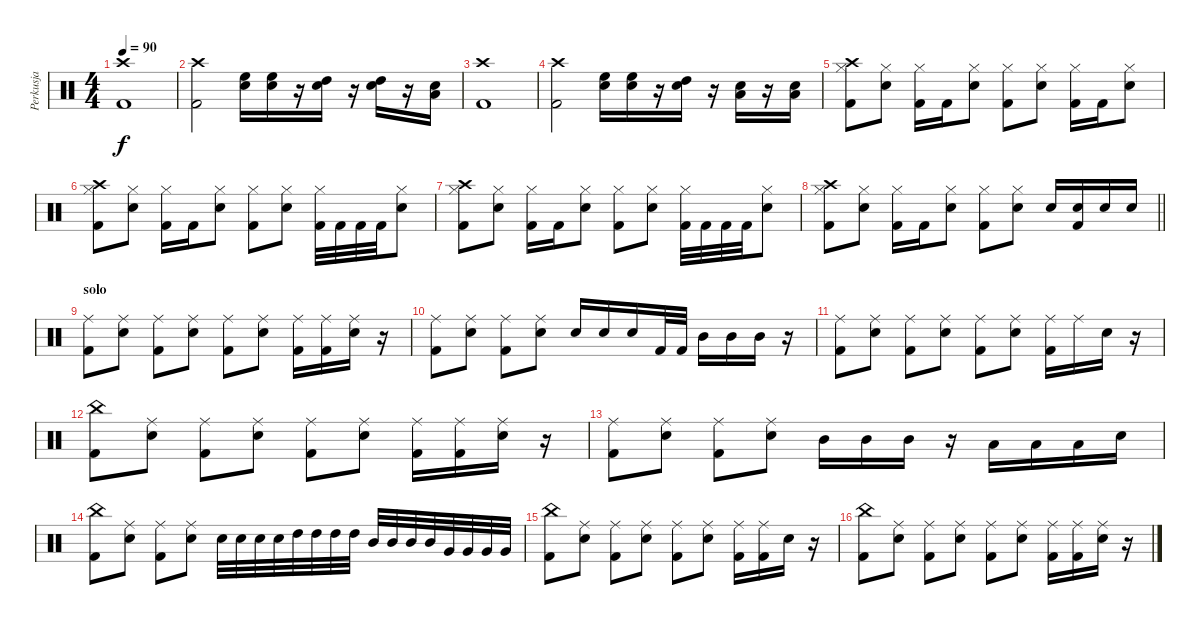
\track ("Perkusja" "Perkusja") {instrument percussion}
\staff {score}
\articulation defaults
\ts (4 4)
\tempo 90
\clef neutral
\ks c
("Kick (hit) 2" "Crash high (hit)").1{dy f} |
("Kick (hit) 2" "Crash high (hit)").2 ("Snare (hit) 2" "High Floor Tom (hit)").16 ("Snare (hit) 2" "High Floor Tom (hit)").16 r.16 ("Snare (hit) 2" "High Tom (hit)").16 r.16 ("Snare (hit) 2" "High Tom (hit)").16 r.16 ("Snare (hit) 2" "Low Floor Tom (hit)").16 |
("Kick (hit) 2" "Crash high (hit)").1 |
("Kick (hit) 2" "Crash high (hit)").2 ("Snare (hit) 2" "High Floor Tom (hit)").16 ("Snare (hit) 2" "High Floor Tom (hit)").16 r.16 ("Snare (hit) 2" "High Tom (hit)").16 r.16 ("Snare (hit) 2" "Low Floor Tom (hit)").16 r.16 ("Snare (hit) 2" "Low Floor Tom (hit)").16 |
("Kick (hit) 2" "Hi-Hat (closed)" "Crash high (hit)").8 ("Snare (hit) 2" "Hi-Hat (closed)").8 ("Kick (hit) 2" "Hi-Hat (closed)").16 "Kick (hit) 2".16 ("Snare (hit) 2" "Hi-Hat (closed)").8 ("Kick (hit) 2" "Hi-Hat (closed)").8 ("Snare (hit) 2" "Hi-Hat (closed)").8 ("Kick (hit) 2" "Hi-Hat (closed)").16 "Kick (hit) 2".16 ("Snare (hit) 2" "Hi-Hat (closed)").8 |
("Kick (hit) 2" "Hi-Hat (closed)" "Crash high (hit)").8 ("Snare (hit) 2" "Hi-Hat (closed)").8 ("Kick (hit) 2" "Hi-Hat (closed)").16 "Kick (hit) 2".16 ("Snare (hit) 2" "Hi-Hat (closed)").8 ("Kick (hit) 2" "Hi-Hat (closed)").8 ("Snare (hit) 2" "Hi-Hat (closed)").8 ("Kick (hit) 2" "Hi-Hat (closed)").32 "Kick (hit) 2".32 "Kick (hit) 2".32 "Kick (hit) 2".32 ("Snare (hit) 2" "Hi-Hat (closed)").8 |
("Kick (hit) 2" "Hi-Hat (closed)" "Crash high (hit)").8 ("Snare (hit) 2" "Hi-Hat (closed)").8 ("Kick (hit) 2" "Hi-Hat (closed)").16 "Kick (hit) 2".16 ("Snare (hit) 2" "Hi-Hat (closed)").8 ("Kick (hit) 2" "Hi-Hat (closed)").8 ("Snare (hit) 2" "Hi-Hat (closed)").8 ("Kick (hit) 2" "Hi-Hat (closed)").32 "Kick (hit) 2".32 "Kick (hit) 2".32 "Kick (hit) 2".32 ("Snare (hit) 2" "Hi-Hat (closed)").8 |
\barLineRight lightlight
("Kick (hit) 2" "Hi-Hat (closed)" "Crash high (hit)").8 ("Snare (hit) 2" "Hi-Hat (closed)").8 ("Kick (hit) 2" "Hi-Hat (closed)").16 "Kick (hit) 2".16 ("Snare (hit) 2" "Hi-Hat (closed)").8 ("Kick (hit) 2" "Hi-Hat (closed)").8 ("Snare (hit) 2" "Hi-Hat (closed)").8 "Snare (hit) 2".16 ("Snare (hit) 2" "Kick (hit) 2").16 "Snare (hit) 2".16 "Snare (hit) 2".16 |
\section ("" "solo")
("Ride (middle)" "Kick (hit) 2").8 ("Ride (middle)" "Snare (hit) 2").8 ("Ride (middle)" "Kick (hit) 2").8 ("Ride (middle)" "Snare (hit) 2").8 ("Ride (middle)" "Kick (hit) 2").8 ("Ride (middle)" "Snare (hit) 2").8 ("Ride (middle)" "Kick (hit) 2").16 ("Ride (middle)" "Kick (hit) 2").16 ("Ride (middle)" "Snare (hit) 2").16 r.16 |
("Ride (middle)" "Kick (hit) 2").8 ("Ride (middle)" "Snare (hit) 2").8 ("Ride (middle)" "Kick (hit) 2").8 ("Ride (middle)" "Snare (hit) 2").8 "Snare (hit) 2".16 "Snare (hit) 2".16 "Snare (hit) 2".16 "Kick (hit) 2".32 "Kick (hit) 2".32 "Mid Tom (hit)".16 "Mid Tom (hit)".16 "Mid Tom (hit)".16 r.16 |
("Ride (middle)" "Kick (hit) 2").8 ("Ride (middle)" "Snare (hit) 2").8 ("Ride (middle)" "Kick (hit) 2").8 ("Ride (middle)" "Snare (hit) 2").8 ("Ride (middle)" "Kick (hit) 2").8 ("Ride (middle)" "Snare (hit) 2").8 ("Ride (middle)" "Kick (hit) 2").16 "Ride (middle)".16 "Snare (hit) 2".16 r.16 |
("China (hit)" "Kick (hit) 2").8 ("Ride (middle)" "Snare (hit) 2").8 ("Ride (middle)" "Kick (hit) 2").8 ("Ride (middle)" "Snare (hit) 2").8 ("Ride (middle)" "Kick (hit) 2").8 ("Ride (middle)" "Snare (hit) 2").8 ("Ride (middle)" "Kick (hit) 2").16 ("Ride (middle)" "Kick (hit) 2").16 ("Ride (middle)" "Snare (hit) 2").16 r.16 |
("Ride (middle)" "Kick (hit) 2").8 ("Ride (middle)" "Snare (hit) 2").8 ("Ride (middle)" "Kick (hit) 2").8 ("Ride (middle)" "Snare (hit) 2").8 "Mid Tom (hit)".16 "Mid Tom (hit)".16 "Mid Tom (hit)".16 r.16 "Low Floor Tom (hit)".16 "Low Floor Tom (hit)".16 "Low Floor Tom (hit)".16 "Snare (hit) 2".16 |
("China (hit)" "Kick (hit) 2").8 ("Ride (middle)" "Snare (hit) 2").8 ("Ride (middle)" "Kick (hit) 2").8 ("Ride (middle)" "Snare (hit) 2").8 "Snare (hit) 2".32 "Snare (hit) 2".32 "Snare (hit) 2".32 "Snare (hit) 2".32 "High Tom (hit)".32 "High Tom (hit)".32 "High Tom (hit)".32 "High Tom (hit)".32 "Mid Tom (hit)".32 "Mid Tom (hit)".32 "Mid Tom (hit)".32 "Mid Tom (hit)".32 "Very Low Tom (hit)".32 "Very Low Tom (hit)".32 "Very Low Tom (hit)".32 "Very Low Tom (hit)".32 |
("China (hit)" "Kick (hit) 2").8 ("Ride (middle)" "Snare (hit) 2").8 ("Ride (middle)" "Kick (hit) 2").8 ("Ride (middle)" "Snare (hit) 2").8 ("Ride (middle)" "Kick (hit) 2").8 ("Ride (middle)" "Snare (hit) 2").8 ("Ride (middle)" "Kick (hit) 2").16 ("Ride (middle)" "Kick (hit) 2").16 "Snare (hit) 2".16 r.16 |
("China (hit)" "Kick (hit) 2").8 ("Ride (middle)" "Snare (hit) 2").8 ("Ride (middle)" "Kick (hit) 2").8 ("Ride (middle)" "Snare (hit) 2").8 ("Ride (middle)" "Kick (hit) 2").8 ("Ride (middle)" "Snare (hit) 2").8 ("Ride (middle)" "Kick (hit) 2").16 ("Ride (middle)" "Kick (hit) 2").16 ("Ride (middle)" "Snare (hit) 2").16 r.16
